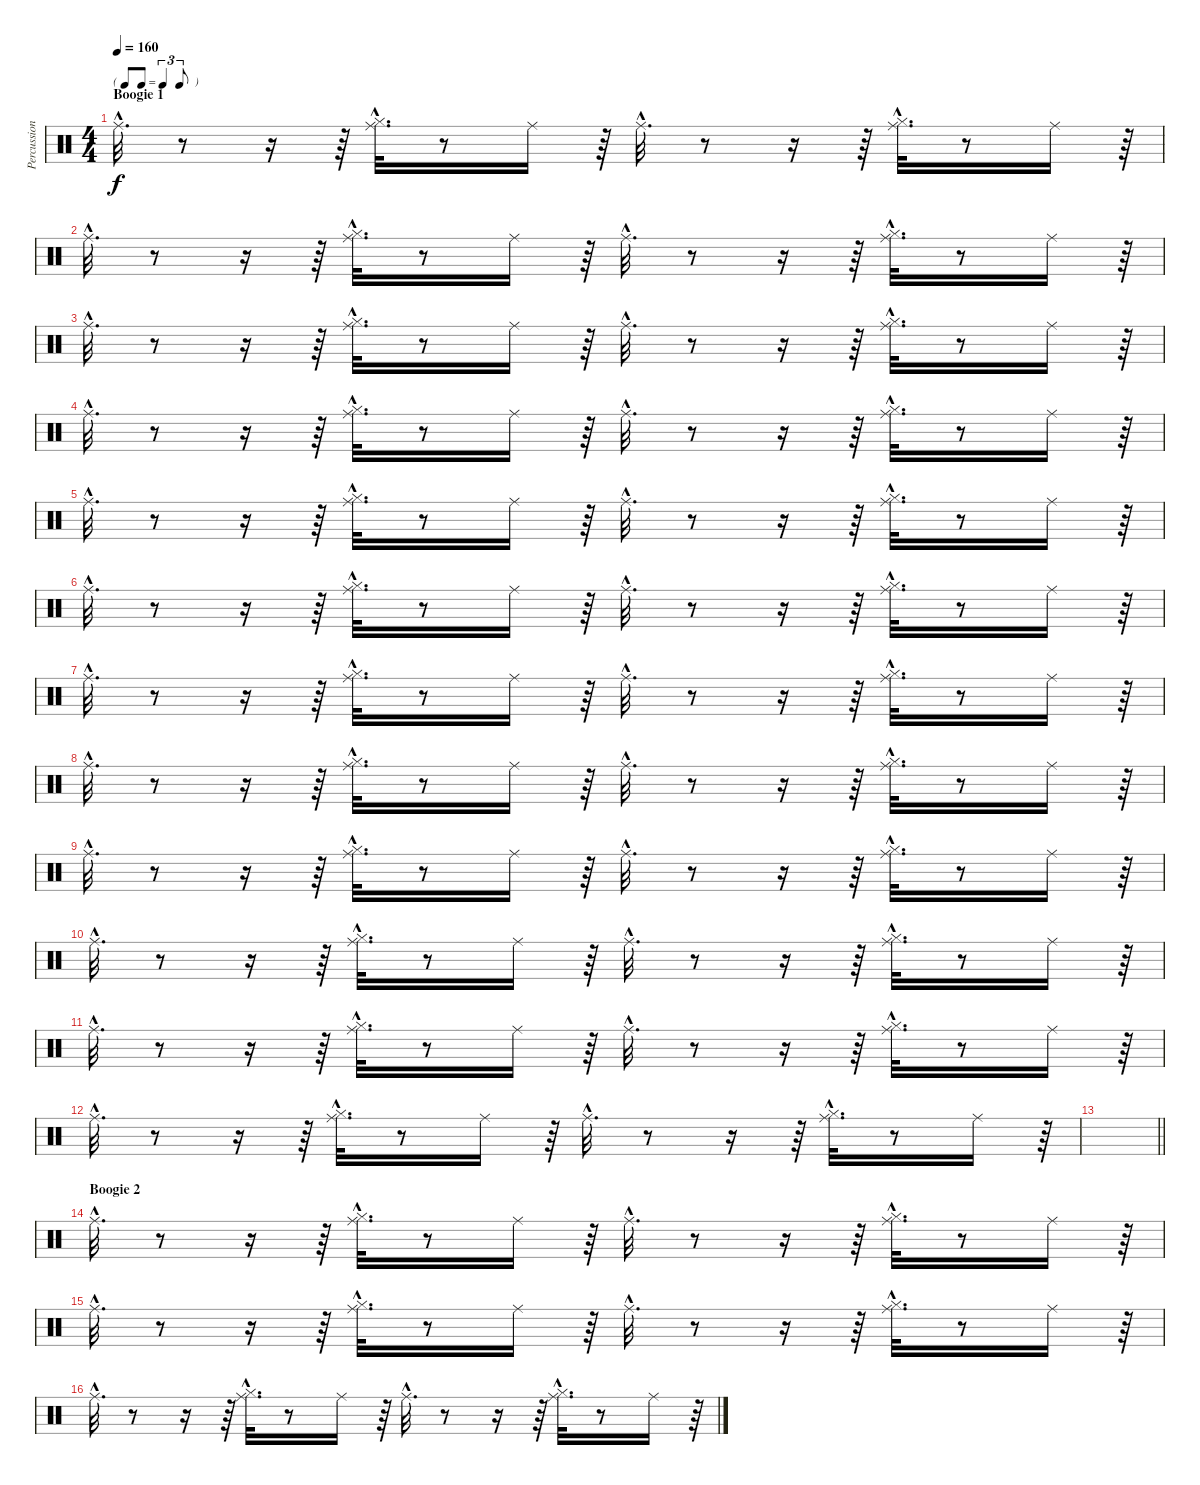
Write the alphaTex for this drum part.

\track ("Percussions" "Percussion") {instrument percussion}
\staff {score}
\articulation defaults
\ts (4 4)
\tf triplet8th
\section ("" "Boogie 1")
\tempo 160
\clef neutral
\ks c "Ride (middle)"{hac}.32{d dy f}
r.8 r.16 r.64 ("Hi-Hat (closed)"{hac} "Ride (middle)"{hac}).32{d} r.8 "Ride (middle)".16 r.64 "Ride (middle)"{hac}.32{d} r.8 r.16 r.64 ("Hi-Hat (closed)"{hac} "Ride (middle)"{hac}).32{d} r.8 "Ride (middle)".16 r.64 |
"Ride (middle)"{hac}.32{d} r.8 r.16 r.64 ("Hi-Hat (closed)"{hac} "Ride (middle)"{hac}).32{d} r.8 "Ride (middle)".16 r.64 "Ride (middle)"{hac}.32{d} r.8 r.16 r.64 ("Hi-Hat (closed)"{hac} "Ride (middle)"{hac}).32{d} r.8 "Ride (middle)".16 r.64 |
"Ride (middle)"{hac}.32{d} r.8 r.16 r.64 ("Hi-Hat (closed)"{hac} "Ride (middle)"{hac}).32{d} r.8 "Ride (middle)".16 r.64 "Ride (middle)"{hac}.32{d} r.8 r.16 r.64 ("Hi-Hat (closed)"{hac} "Ride (middle)"{hac}).32{d} r.8 "Ride (middle)".16 r.64 |
"Ride (middle)"{hac}.32{d} r.8 r.16 r.64 ("Hi-Hat (closed)"{hac} "Ride (middle)"{hac}).32{d} r.8 "Ride (middle)".16 r.64 "Ride (middle)"{hac}.32{d} r.8 r.16 r.64 ("Hi-Hat (closed)"{hac} "Ride (middle)"{hac}).32{d} r.8 "Ride (middle)".16 r.64 |
"Ride (middle)"{hac}.32{d} r.8 r.16 r.64 ("Hi-Hat (closed)"{hac} "Ride (middle)"{hac}).32{d} r.8 "Ride (middle)".16 r.64 "Ride (middle)"{hac}.32{d} r.8 r.16 r.64 ("Hi-Hat (closed)"{hac} "Ride (middle)"{hac}).32{d} r.8 "Ride (middle)".16 r.64 |
"Ride (middle)"{hac}.32{d} r.8 r.16 r.64 ("Hi-Hat (closed)"{hac} "Ride (middle)"{hac}).32{d} r.8 "Ride (middle)".16 r.64 "Ride (middle)"{hac}.32{d} r.8 r.16 r.64 ("Hi-Hat (closed)"{hac} "Ride (middle)"{hac}).32{d} r.8 "Ride (middle)".16 r.64 |
"Ride (middle)"{hac}.32{d} r.8 r.16 r.64 ("Hi-Hat (closed)"{hac} "Ride (middle)"{hac}).32{d} r.8 "Ride (middle)".16 r.64 "Ride (middle)"{hac}.32{d} r.8 r.16 r.64 ("Hi-Hat (closed)"{hac} "Ride (middle)"{hac}).32{d} r.8 "Ride (middle)".16 r.64 |
"Ride (middle)"{hac}.32{d} r.8 r.16 r.64 ("Hi-Hat (closed)"{hac} "Ride (middle)"{hac}).32{d} r.8 "Ride (middle)".16 r.64 "Ride (middle)"{hac}.32{d} r.8 r.16 r.64 ("Hi-Hat (closed)"{hac} "Ride (middle)"{hac}).32{d} r.8 "Ride (middle)".16 r.64 |
"Ride (middle)"{hac}.32{d} r.8 r.16 r.64 ("Hi-Hat (closed)"{hac} "Ride (middle)"{hac}).32{d} r.8 "Ride (middle)".16 r.64 "Ride (middle)"{hac}.32{d} r.8 r.16 r.64 ("Hi-Hat (closed)"{hac} "Ride (middle)"{hac}).32{d} r.8 "Ride (middle)".16 r.64 |
"Ride (middle)"{hac}.32{d} r.8 r.16 r.64 ("Hi-Hat (closed)"{hac} "Ride (middle)"{hac}).32{d} r.8 "Ride (middle)".16 r.64 "Ride (middle)"{hac}.32{d} r.8 r.16 r.64 ("Hi-Hat (closed)"{hac} "Ride (middle)"{hac}).32{d} r.8 "Ride (middle)".16 r.64 |
"Ride (middle)"{hac}.32{d} r.8 r.16 r.64 ("Hi-Hat (closed)"{hac} "Ride (middle)"{hac}).32{d} r.8 "Ride (middle)".16 r.64 "Ride (middle)"{hac}.32{d} r.8 r.16 r.64 ("Hi-Hat (closed)"{hac} "Ride (middle)"{hac}).32{d} r.8 "Ride (middle)".16 r.64 |
"Ride (middle)"{hac}.32{d} r.8 r.16 r.64 ("Hi-Hat (closed)"{hac} "Ride (middle)"{hac}).32{d} r.8 "Ride (middle)".16 r.64 "Ride (middle)"{hac}.32{d} r.8 r.16 r.64 ("Hi-Hat (closed)"{hac} "Ride (middle)"{hac}).32{d} r.8 "Ride (middle)".16 r.64 |
\barLineRight lightlight
|
\section ("" "Boogie 2")
"Ride (middle)"{hac}.32{d} r.8 r.16 r.64 ("Hi-Hat (closed)"{hac} "Ride (middle)"{hac}).32{d} r.8 "Ride (middle)".16 r.64 "Ride (middle)"{hac}.32{d} r.8 r.16 r.64 ("Hi-Hat (closed)"{hac} "Ride (middle)"{hac}).32{d} r.8 "Ride (middle)".16 r.64 |
"Ride (middle)"{hac}.32{d} r.8 r.16 r.64 ("Hi-Hat (closed)"{hac} "Ride (middle)"{hac}).32{d} r.8 "Ride (middle)".16 r.64 "Ride (middle)"{hac}.32{d} r.8 r.16 r.64 ("Hi-Hat (closed)"{hac} "Ride (middle)"{hac}).32{d} r.8 "Ride (middle)".16 r.64 |
"Ride (middle)"{hac}.32{d} r.8 r.16 r.64 ("Hi-Hat (closed)"{hac} "Ride (middle)"{hac}).32{d} r.8 "Ride (middle)".16 r.64 "Ride (middle)"{hac}.32{d} r.8 r.16 r.64 ("Hi-Hat (closed)"{hac} "Ride (middle)"{hac}).32{d} r.8 "Ride (middle)".16 r.64
